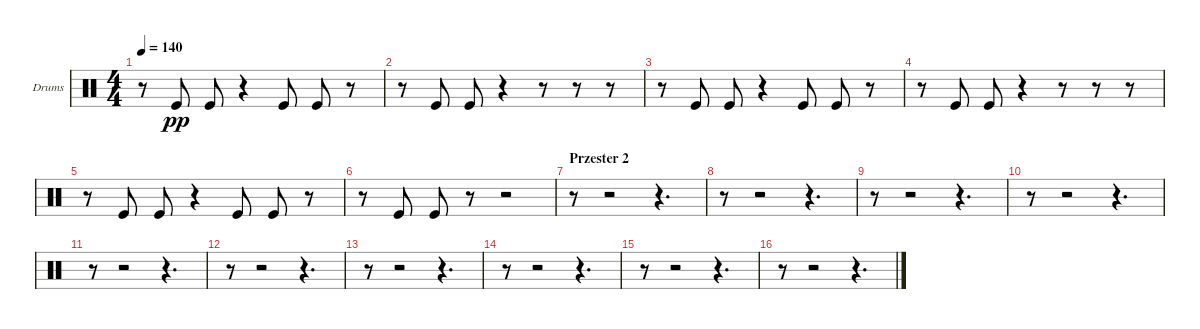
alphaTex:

\bracketExtendMode groupsimilarinstruments
\firstSystemTrackNameOrientation horizontal
\otherSystemsTrackNameOrientation horizontal
\track ("Drumkit" "Drums") {instrument percussion}
\staff {score}
\articulation defaults
\ts (4 4)
\tempo 140
\clef neutral
\ks c
r.8{dy pp} "Kick (hit)".8 "Kick (hit)".8 r.4 "Kick (hit)".8 "Kick (hit)".8 r.8 |
r.8 "Kick (hit)".8 "Kick (hit)".8 r.4 r.8 r.8 r.8 |
r.8 "Kick (hit)".8 "Kick (hit)".8 r.4 "Kick (hit)".8 "Kick (hit)".8 r.8 |
r.8 "Kick (hit)".8 "Kick (hit)".8 r.4 r.8 r.8 r.8 |
r.8 "Kick (hit)".8 "Kick (hit)".8 r.4 "Kick (hit)".8 "Kick (hit)".8 r.8 |
r.8 "Kick (hit)".8 "Kick (hit)".8 r.8 r.2 |
\section ("" "Przester 2")
r.8 r.2 r.4{d} |
r.8 r.2 r.4{d} |
r.8 r.2 r.4{d} |
r.8 r.2 r.4{d} |
r.8 r.2 r.4{d} |
r.8 r.2 r.4{d} |
r.8 r.2 r.4{d} |
r.8 r.2 r.4{d} |
r.8 r.2 r.4{d} |
r.8 r.2 r.4{d}
